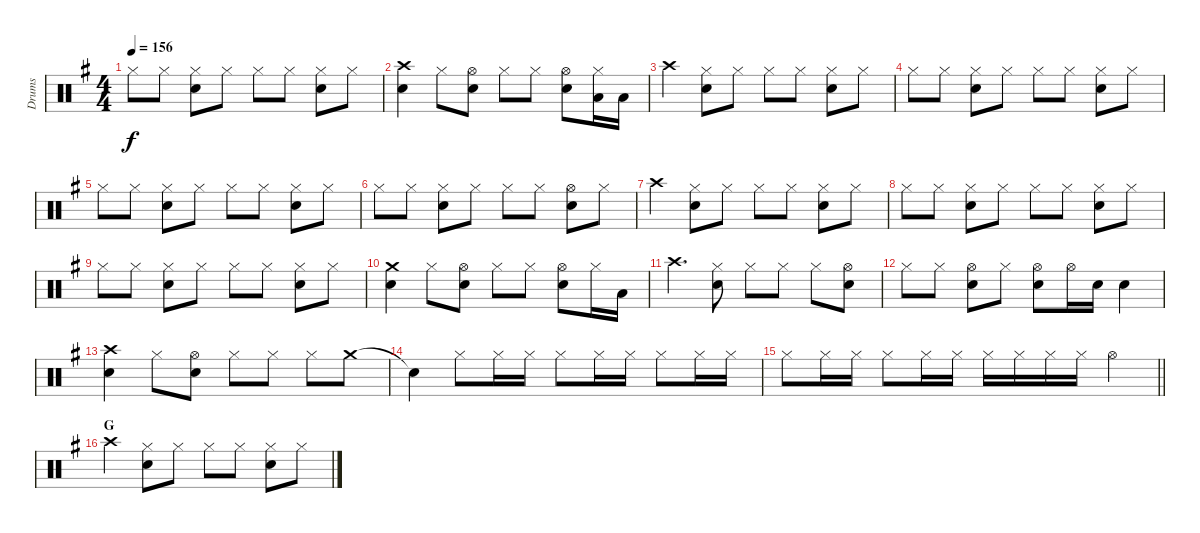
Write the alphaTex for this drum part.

\track ("Drums" "Drums") {instrument percussion}
\staff {score}
\articulation defaults
\ts (4 4)
\tempo 156
\clef neutral
\ks g "Hi-Hat (closed)".8{dy f} "Hi-Hat (closed)".8
("Hi-Hat (closed)" "Snare (hit) 2").8 "Hi-Hat (closed)".8 "Hi-Hat (closed)".8 "Hi-Hat (closed)".8 ("Hi-Hat (closed)" "Snare (hit) 2").8 "Hi-Hat (closed)".8 |
("Crash high (hit)" "Snare (hit) 2").4 "Hi-Hat (closed)".8 ("Hi-Hat (open)" "Snare (hit) 2").8 "Hi-Hat (closed)".8 "Hi-Hat (closed)".8 ("Hi-Hat (open)" "Snare (hit) 2").8 ("Hi-Hat (closed)" "Low Tom (hit)").16 "Low Tom (hit)".16 |
"Crash high (hit)".4 ("Hi-Hat (closed)" "Snare (hit) 2").8 "Hi-Hat (closed)".8 "Hi-Hat (closed)".8 "Hi-Hat (closed)".8 ("Hi-Hat (closed)" "Snare (hit) 2").8 "Hi-Hat (closed)".8 |
"Hi-Hat (closed)".8 "Hi-Hat (closed)".8 ("Hi-Hat (closed)" "Snare (hit) 2").8 "Hi-Hat (closed)".8 "Hi-Hat (closed)".8 "Hi-Hat (closed)".8 ("Hi-Hat (closed)" "Snare (hit) 2").8 "Hi-Hat (closed)".8 |
"Hi-Hat (closed)".8 "Hi-Hat (closed)".8 ("Hi-Hat (closed)" "Snare (hit) 2").8 "Hi-Hat (closed)".8 "Hi-Hat (closed)".8 "Hi-Hat (closed)".8 ("Hi-Hat (closed)" "Snare (hit) 2").8 "Hi-Hat (closed)".8 |
"Hi-Hat (closed)".8 "Hi-Hat (closed)".8 ("Hi-Hat (closed)" "Snare (hit) 2").8 "Hi-Hat (closed)".8 "Hi-Hat (closed)".8 "Hi-Hat (closed)".8 ("Hi-Hat (open)" "Snare (hit) 2").8 "Hi-Hat (closed)".8 |
"Crash high (hit)".4 ("Hi-Hat (closed)" "Snare (hit) 2").8 "Hi-Hat (closed)".8 "Hi-Hat (closed)".8 "Hi-Hat (closed)".8 ("Hi-Hat (closed)" "Snare (hit) 2").8 "Hi-Hat (closed)".8 |
"Hi-Hat (closed)".8 "Hi-Hat (closed)".8 ("Hi-Hat (closed)" "Snare (hit) 2").8 "Hi-Hat (closed)".8 "Hi-Hat (closed)".8 "Hi-Hat (closed)".8 ("Hi-Hat (closed)" "Snare (hit) 2").8 "Hi-Hat (closed)".8 |
"Hi-Hat (closed)".8 "Hi-Hat (closed)".8 ("Hi-Hat (closed)" "Snare (hit) 2").8 "Hi-Hat (closed)".8 "Hi-Hat (closed)".8 "Hi-Hat (closed)".8 ("Hi-Hat (closed)" "Snare (hit) 2").8 "Hi-Hat (closed)".8 |
("Crash medium (hit)" "Snare (hit) 2").4 "Hi-Hat (closed)".8 ("Hi-Hat (open)" "Snare (hit) 2").8 "Hi-Hat (closed)".8 "Hi-Hat (closed)".8 ("Hi-Hat (open)" "Snare (hit) 2").8 "Hi-Hat (closed)".16 "Low Tom (hit)".16 |
"Crash high (hit)".4{d} ("Hi-Hat (closed)" "Snare (hit) 2").8 "Hi-Hat (closed)".8 "Hi-Hat (closed)".8 "Hi-Hat (closed)".8 ("Hi-Hat (open)" "Snare (hit) 2").8 |
"Hi-Hat (closed)".8 "Hi-Hat (closed)".8 ("Hi-Hat (open)" "Snare (hit) 2").8 "Hi-Hat (closed)".8 ("Hi-Hat (open)" "Snare (hit) 2").8 "Hi-Hat (open)".16 "Snare (hit) 2".16 "Snare (hit) 2".4 |
("Crash high (hit)" "Snare (hit) 2").4 "Hi-Hat (closed)".8 ("Hi-Hat (open)" "Snare (hit) 2").8 "Hi-Hat (closed)".8 "Hi-Hat (closed)".8 "Hi-Hat (closed)".8 "Crash medium (hit)".8 |
"Snare (hit)"{t}.4 "Hi-Hat (closed)".8 "Hi-Hat (closed)".16 "Hi-Hat (closed)".16 "Hi-Hat (closed)".8 "Hi-Hat (closed)".16 "Hi-Hat (closed)".16 "Hi-Hat (closed)".8 "Hi-Hat (closed)".16 "Hi-Hat (closed)".16 |
\barLineRight lightlight "Hi-Hat (closed)".8 "Hi-Hat (closed)".16 "Hi-Hat (closed)".16 "Hi-Hat (closed)".8 "Hi-Hat (closed)".16 "Hi-Hat (closed)".16 "Hi-Hat (closed)".16 "Hi-Hat (closed)".16 "Hi-Hat (closed)".16 "Hi-Hat (closed)".16 "Hi-Hat (open)".4
|
\section ("" "G")
"Crash high (hit)".4 ("Hi-Hat (closed)" "Snare (hit) 2").8 "Hi-Hat (closed)".8 "Hi-Hat (closed)".8 "Hi-Hat (closed)".8 ("Hi-Hat (closed)" "Snare (hit) 2").8 "Hi-Hat (closed)".8
